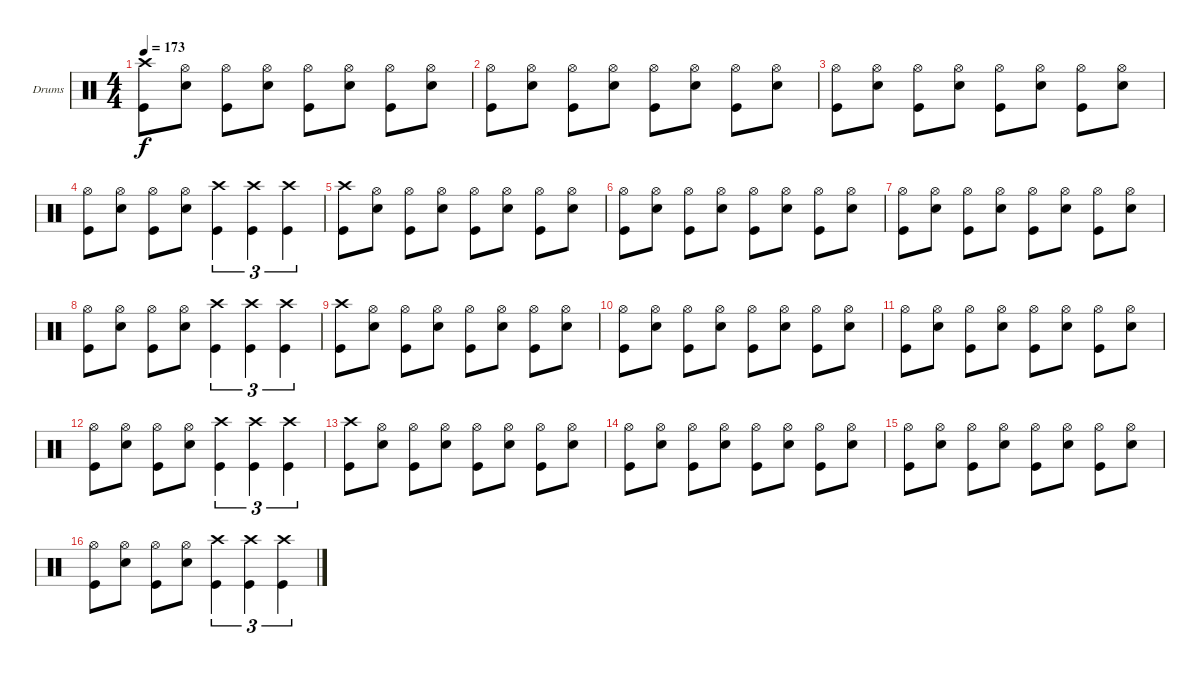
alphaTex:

\bracketExtendMode groupsimilarinstruments
\firstSystemTrackNameOrientation horizontal
\otherSystemsTrackNameOrientation horizontal
\track ("Drums" "Drums") {instrument percussion}
\staff {score}
\articulation defaults
\ts (4 4)
\tempo 173
\clef neutral
\ks c
("Crash high (hit)" "Kick (hit)").8{dy f} ("Snare (hit) 2" "Hi-Hat (open)").8 ("Kick (hit)" "Hi-Hat (open)").8 ("Snare (hit) 2" "Hi-Hat (open)").8 ("Kick (hit)" "Hi-Hat (open)").8 ("Hi-Hat (open)" "Snare (hit) 2").8 ("Hi-Hat (open)" "Kick (hit)").8 ("Hi-Hat (open)" "Snare (hit) 2").8 |
("Hi-Hat (open)" "Kick (hit)").8 ("Hi-Hat (open)" "Snare (hit) 2").8 ("Hi-Hat (open)" "Kick (hit)").8 ("Hi-Hat (open)" "Snare (hit) 2").8 ("Hi-Hat (open)" "Kick (hit)").8 ("Hi-Hat (open)" "Snare (hit) 2").8 ("Hi-Hat (open)" "Kick (hit)").8 ("Hi-Hat (open)" "Snare (hit) 2").8 |
("Hi-Hat (open)" "Kick (hit)").8 ("Hi-Hat (open)" "Snare (hit) 2").8 ("Hi-Hat (open)" "Kick (hit)").8 ("Hi-Hat (open)" "Snare (hit) 2").8 ("Hi-Hat (open)" "Kick (hit)").8 ("Hi-Hat (open)" "Snare (hit) 2").8 ("Hi-Hat (open)" "Kick (hit)").8 ("Hi-Hat (open)" "Snare (hit) 2").8 |
("Hi-Hat (open)" "Kick (hit)").8 ("Hi-Hat (open)" "Snare (hit) 2").8 ("Hi-Hat (open)" "Kick (hit)").8 ("Hi-Hat (open)" "Snare (hit) 2").8 ("Crash high (hit)" "Kick (hit)").4{tu (3 2)} ("Crash high (hit)" "Kick (hit)").4{tu (3 2)} ("Crash high (hit)" "Kick (hit)").4{tu (3 2)} |
("Crash high (hit)" "Kick (hit)").8 ("Snare (hit) 2" "Hi-Hat (open)").8 ("Kick (hit)" "Hi-Hat (open)").8 ("Snare (hit) 2" "Hi-Hat (open)").8 ("Kick (hit)" "Hi-Hat (open)").8 ("Hi-Hat (open)" "Snare (hit) 2").8 ("Hi-Hat (open)" "Kick (hit)").8 ("Hi-Hat (open)" "Snare (hit) 2").8 |
("Hi-Hat (open)" "Kick (hit)").8 ("Hi-Hat (open)" "Snare (hit) 2").8 ("Hi-Hat (open)" "Kick (hit)").8 ("Hi-Hat (open)" "Snare (hit) 2").8 ("Hi-Hat (open)" "Kick (hit)").8 ("Hi-Hat (open)" "Snare (hit) 2").8 ("Hi-Hat (open)" "Kick (hit)").8 ("Hi-Hat (open)" "Snare (hit) 2").8 |
("Hi-Hat (open)" "Kick (hit)").8 ("Hi-Hat (open)" "Snare (hit) 2").8 ("Hi-Hat (open)" "Kick (hit)").8 ("Hi-Hat (open)" "Snare (hit) 2").8 ("Hi-Hat (open)" "Kick (hit)").8 ("Hi-Hat (open)" "Snare (hit) 2").8 ("Hi-Hat (open)" "Kick (hit)").8 ("Hi-Hat (open)" "Snare (hit) 2").8 |
("Hi-Hat (open)" "Kick (hit)").8 ("Hi-Hat (open)" "Snare (hit) 2").8 ("Hi-Hat (open)" "Kick (hit)").8 ("Hi-Hat (open)" "Snare (hit) 2").8 ("Crash high (hit)" "Kick (hit)").4{tu (3 2)} ("Crash high (hit)" "Kick (hit)").4{tu (3 2)} ("Crash high (hit)" "Kick (hit)").4{tu (3 2)} |
("Crash high (hit)" "Kick (hit)").8 ("Snare (hit) 2" "Hi-Hat (open)").8 ("Kick (hit)" "Hi-Hat (open)").8 ("Snare (hit) 2" "Hi-Hat (open)").8 ("Kick (hit)" "Hi-Hat (open)").8 ("Hi-Hat (open)" "Snare (hit) 2").8 ("Hi-Hat (open)" "Kick (hit)").8 ("Hi-Hat (open)" "Snare (hit) 2").8 |
("Hi-Hat (open)" "Kick (hit)").8 ("Hi-Hat (open)" "Snare (hit) 2").8 ("Hi-Hat (open)" "Kick (hit)").8 ("Hi-Hat (open)" "Snare (hit) 2").8 ("Hi-Hat (open)" "Kick (hit)").8 ("Hi-Hat (open)" "Snare (hit) 2").8 ("Hi-Hat (open)" "Kick (hit)").8 ("Hi-Hat (open)" "Snare (hit) 2").8 |
("Hi-Hat (open)" "Kick (hit)").8 ("Hi-Hat (open)" "Snare (hit) 2").8 ("Hi-Hat (open)" "Kick (hit)").8 ("Hi-Hat (open)" "Snare (hit) 2").8 ("Hi-Hat (open)" "Kick (hit)").8 ("Hi-Hat (open)" "Snare (hit) 2").8 ("Hi-Hat (open)" "Kick (hit)").8 ("Hi-Hat (open)" "Snare (hit) 2").8 |
("Hi-Hat (open)" "Kick (hit)").8 ("Hi-Hat (open)" "Snare (hit) 2").8 ("Hi-Hat (open)" "Kick (hit)").8 ("Hi-Hat (open)" "Snare (hit) 2").8 ("Crash high (hit)" "Kick (hit)").4{tu (3 2)} ("Crash high (hit)" "Kick (hit)").4{tu (3 2)} ("Crash high (hit)" "Kick (hit)").4{tu (3 2)} |
("Crash high (hit)" "Kick (hit)").8 ("Snare (hit) 2" "Hi-Hat (open)").8 ("Kick (hit)" "Hi-Hat (open)").8 ("Snare (hit) 2" "Hi-Hat (open)").8 ("Kick (hit)" "Hi-Hat (open)").8 ("Hi-Hat (open)" "Snare (hit) 2").8 ("Hi-Hat (open)" "Kick (hit)").8 ("Hi-Hat (open)" "Snare (hit) 2").8 |
("Hi-Hat (open)" "Kick (hit)").8 ("Hi-Hat (open)" "Snare (hit) 2").8 ("Hi-Hat (open)" "Kick (hit)").8 ("Hi-Hat (open)" "Snare (hit) 2").8 ("Hi-Hat (open)" "Kick (hit)").8 ("Hi-Hat (open)" "Snare (hit) 2").8 ("Hi-Hat (open)" "Kick (hit)").8 ("Hi-Hat (open)" "Snare (hit) 2").8 |
("Hi-Hat (open)" "Kick (hit)").8 ("Hi-Hat (open)" "Snare (hit) 2").8 ("Hi-Hat (open)" "Kick (hit)").8 ("Hi-Hat (open)" "Snare (hit) 2").8 ("Hi-Hat (open)" "Kick (hit)").8 ("Hi-Hat (open)" "Snare (hit) 2").8 ("Hi-Hat (open)" "Kick (hit)").8 ("Hi-Hat (open)" "Snare (hit) 2").8 |
("Hi-Hat (open)" "Kick (hit)").8 ("Hi-Hat (open)" "Snare (hit) 2").8 ("Hi-Hat (open)" "Kick (hit)").8 ("Hi-Hat (open)" "Snare (hit) 2").8 ("Crash high (hit)" "Kick (hit)").4{tu (3 2)} ("Crash high (hit)" "Kick (hit)").4{tu (3 2)} ("Crash high (hit)" "Kick (hit)").4{tu (3 2)}
